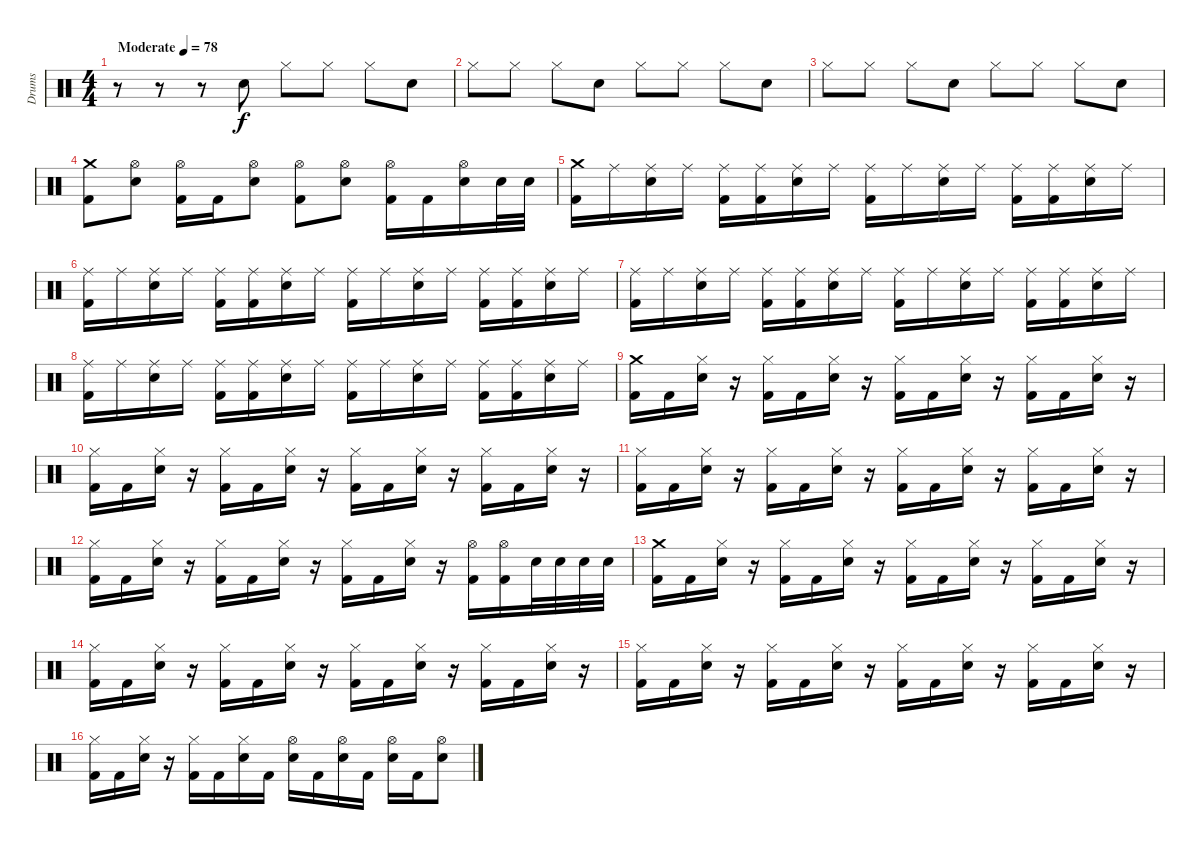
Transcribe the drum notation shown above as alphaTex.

\track ("Drums" "Drums") {instrument percussion}
\staff {score}
\articulation defaults
\ts (4 4)
\tempo (78 "Moderate")
\clef neutral
\ks c
r.8{dy f} r.8 r.8 "Snare (hit) 2".8 "Hi-Hat (closed)".8 "Hi-Hat (closed)".8 "Hi-Hat (closed)".8 "Snare (hit) 2".8 |
"Hi-Hat (closed)".8 "Hi-Hat (closed)".8 "Hi-Hat (closed)".8 "Snare (hit) 2".8 "Hi-Hat (closed)".8 "Hi-Hat (closed)".8 "Hi-Hat (closed)".8 "Snare (hit) 2".8 |
"Hi-Hat (closed)".8 "Hi-Hat (closed)".8 "Hi-Hat (closed)".8 "Snare (hit) 2".8 "Hi-Hat (closed)".8 "Hi-Hat (closed)".8 "Hi-Hat (closed)".8 "Snare (hit) 2".8 |
("Crash medium (hit)" "Kick (hit) 2").8 ("Hi-Hat (open)" "Snare (hit) 2").8 ("Hi-Hat (open)" "Kick (hit) 2").16 "Kick (hit) 2".16 ("Hi-Hat (open)" "Snare (hit) 2").8 ("Hi-Hat (open)" "Kick (hit) 2").8 ("Hi-Hat (open)" "Snare (hit) 2").8 ("Hi-Hat (open)" "Kick (hit) 2").16 "Kick (hit) 2".16 ("Hi-Hat (open)" "Snare (hit) 2").16 "Snare (hit) 2".32 "Snare (hit) 2".32 |
("Crash medium (hit)" "Kick (hit) 2").16 "Ride (middle)".16 ("Ride (middle)" "Snare (hit) 2").16 "Ride (middle)".16 ("Ride (middle)" "Kick (hit) 2").16 ("Ride (middle)" "Kick (hit) 2").16 ("Ride (middle)" "Snare (hit) 2").16 "Ride (middle)".16 ("Ride (middle)" "Kick (hit) 2").16 "Ride (middle)".16 ("Ride (middle)" "Snare (hit) 2").16 "Ride (middle)".16 ("Ride (middle)" "Kick (hit) 2").16 ("Ride (middle)" "Kick (hit) 2").16 ("Ride (middle)" "Snare (hit) 2").16 "Ride (middle)".16 |
("Ride (middle)" "Kick (hit) 2").16 "Ride (middle)".16 ("Ride (middle)" "Snare (hit) 2").16 "Ride (middle)".16 ("Ride (middle)" "Kick (hit) 2").16 ("Ride (middle)" "Kick (hit) 2").16 ("Ride (middle)" "Snare (hit) 2").16 "Ride (middle)".16 ("Ride (middle)" "Kick (hit) 2").16 "Ride (middle)".16 ("Ride (middle)" "Snare (hit) 2").16 "Ride (middle)".16 ("Ride (middle)" "Kick (hit) 2").16 ("Ride (middle)" "Kick (hit) 2").16 ("Ride (middle)" "Snare (hit) 2").16 "Ride (middle)".16 |
("Ride (middle)" "Kick (hit) 2").16 "Ride (middle)".16 ("Ride (middle)" "Snare (hit) 2").16 "Ride (middle)".16 ("Ride (middle)" "Kick (hit) 2").16 ("Ride (middle)" "Kick (hit) 2").16 ("Ride (middle)" "Snare (hit) 2").16 "Ride (middle)".16 ("Ride (middle)" "Kick (hit) 2").16 "Ride (middle)".16 ("Ride (middle)" "Snare (hit) 2").16 "Ride (middle)".16 ("Ride (middle)" "Kick (hit) 2").16 ("Ride (middle)" "Kick (hit) 2").16 ("Ride (middle)" "Snare (hit) 2").16 "Ride (middle)".16 |
("Ride (middle)" "Kick (hit) 2").16 "Ride (middle)".16 ("Ride (middle)" "Snare (hit) 2").16 "Ride (middle)".16 ("Ride (middle)" "Kick (hit) 2").16 ("Ride (middle)" "Kick (hit) 2").16 ("Ride (middle)" "Snare (hit) 2").16 "Ride (middle)".16 ("Ride (middle)" "Kick (hit) 2").16 "Ride (middle)".16 ("Ride (middle)" "Snare (hit) 2").16 "Ride (middle)".16 ("Ride (middle)" "Kick (hit) 2").16 ("Ride (middle)" "Kick (hit) 2").16 ("Ride (middle)" "Snare (hit) 2").16 "Ride (middle)".16 |
("Crash medium (hit)" "Kick (hit) 2").16 "Kick (hit) 2".16 ("Hi-Hat (closed)" "Snare (hit) 2").16 r.16 ("Hi-Hat (closed)" "Kick (hit) 2").16 "Kick (hit) 2".16 ("Hi-Hat (closed)" "Snare (hit) 2").16 r.16 ("Hi-Hat (closed)" "Kick (hit) 2").16 "Kick (hit) 2".16 ("Hi-Hat (closed)" "Snare (hit) 2").16 r.16 ("Hi-Hat (closed)" "Kick (hit) 2").16 "Kick (hit) 2".16 ("Hi-Hat (closed)" "Snare (hit) 2").16 r.16 |
("Hi-Hat (closed)" "Kick (hit) 2").16 "Kick (hit) 2".16 ("Hi-Hat (closed)" "Snare (hit) 2").16 r.16 ("Hi-Hat (closed)" "Kick (hit) 2").16 "Kick (hit) 2".16 ("Hi-Hat (closed)" "Snare (hit) 2").16 r.16 ("Hi-Hat (closed)" "Kick (hit) 2").16 "Kick (hit) 2".16 ("Hi-Hat (closed)" "Snare (hit) 2").16 r.16 ("Hi-Hat (closed)" "Kick (hit) 2").16 "Kick (hit) 2".16 ("Hi-Hat (closed)" "Snare (hit) 2").16 r.16 |
("Hi-Hat (closed)" "Kick (hit) 2").16 "Kick (hit) 2".16 ("Hi-Hat (closed)" "Snare (hit) 2").16 r.16 ("Hi-Hat (closed)" "Kick (hit) 2").16 "Kick (hit) 2".16 ("Hi-Hat (closed)" "Snare (hit) 2").16 r.16 ("Hi-Hat (closed)" "Kick (hit) 2").16 "Kick (hit) 2".16 ("Hi-Hat (closed)" "Snare (hit) 2").16 r.16 ("Hi-Hat (closed)" "Kick (hit) 2").16 "Kick (hit) 2".16 ("Hi-Hat (closed)" "Snare (hit) 2").16 r.16 |
("Hi-Hat (closed)" "Kick (hit) 2").16 "Kick (hit) 2".16 ("Hi-Hat (closed)" "Snare (hit) 2").16 r.16 ("Hi-Hat (closed)" "Kick (hit) 2").16 "Kick (hit) 2".16 ("Hi-Hat (closed)" "Snare (hit) 2").16 r.16 ("Hi-Hat (closed)" "Kick (hit) 2").16 "Kick (hit) 2".16 ("Hi-Hat (closed)" "Snare (hit) 2").16 r.16 ("Hi-Hat (open)" "Kick (hit) 2").16 ("Hi-Hat (open)" "Kick (hit) 2").16 "Snare (hit) 2".32 "Snare (hit) 2".32 "Snare (hit) 2".32 "Snare (hit) 2".32 |
("Crash medium (hit)" "Kick (hit) 2").16 "Kick (hit) 2".16 ("Hi-Hat (closed)" "Snare (hit) 2").16 r.16 ("Hi-Hat (closed)" "Kick (hit) 2").16 "Kick (hit) 2".16 ("Hi-Hat (closed)" "Snare (hit) 2").16 r.16 ("Hi-Hat (closed)" "Kick (hit) 2").16 "Kick (hit) 2".16 ("Hi-Hat (closed)" "Snare (hit) 2").16 r.16 ("Hi-Hat (closed)" "Kick (hit) 2").16 "Kick (hit) 2".16 ("Hi-Hat (closed)" "Snare (hit) 2").16 r.16 |
("Hi-Hat (closed)" "Kick (hit) 2").16 "Kick (hit) 2".16 ("Hi-Hat (closed)" "Snare (hit) 2").16 r.16 ("Hi-Hat (closed)" "Kick (hit) 2").16 "Kick (hit) 2".16 ("Hi-Hat (closed)" "Snare (hit) 2").16 r.16 ("Hi-Hat (closed)" "Kick (hit) 2").16 "Kick (hit) 2".16 ("Hi-Hat (closed)" "Snare (hit) 2").16 r.16 ("Hi-Hat (closed)" "Kick (hit) 2").16 "Kick (hit) 2".16 ("Hi-Hat (closed)" "Snare (hit) 2").16 r.16 |
("Hi-Hat (closed)" "Kick (hit) 2").16 "Kick (hit) 2".16 ("Hi-Hat (closed)" "Snare (hit) 2").16 r.16 ("Hi-Hat (closed)" "Kick (hit) 2").16 "Kick (hit) 2".16 ("Hi-Hat (closed)" "Snare (hit) 2").16 r.16 ("Hi-Hat (closed)" "Kick (hit) 2").16 "Kick (hit) 2".16 ("Hi-Hat (closed)" "Snare (hit) 2").16 r.16 ("Hi-Hat (closed)" "Kick (hit) 2").16 "Kick (hit) 2".16 ("Hi-Hat (closed)" "Snare (hit) 2").16 r.16 |
("Hi-Hat (closed)" "Kick (hit) 2").16 "Kick (hit) 2".16 ("Hi-Hat (closed)" "Snare (hit) 2").16 r.16 ("Hi-Hat (closed)" "Kick (hit) 2").16 "Kick (hit) 2".16 ("Hi-Hat (closed)" "Snare (hit) 2").16 "Kick (hit) 2".16 ("Hi-Hat (open)" "Snare (hit) 2").16 "Kick (hit) 2".16 ("Hi-Hat (open)" "Snare (hit) 2").16 "Kick (hit) 2".16 ("Hi-Hat (open)" "Snare (hit) 2").16 "Kick (hit) 2".16 ("Hi-Hat (open)" "Snare (hit) 2").8
